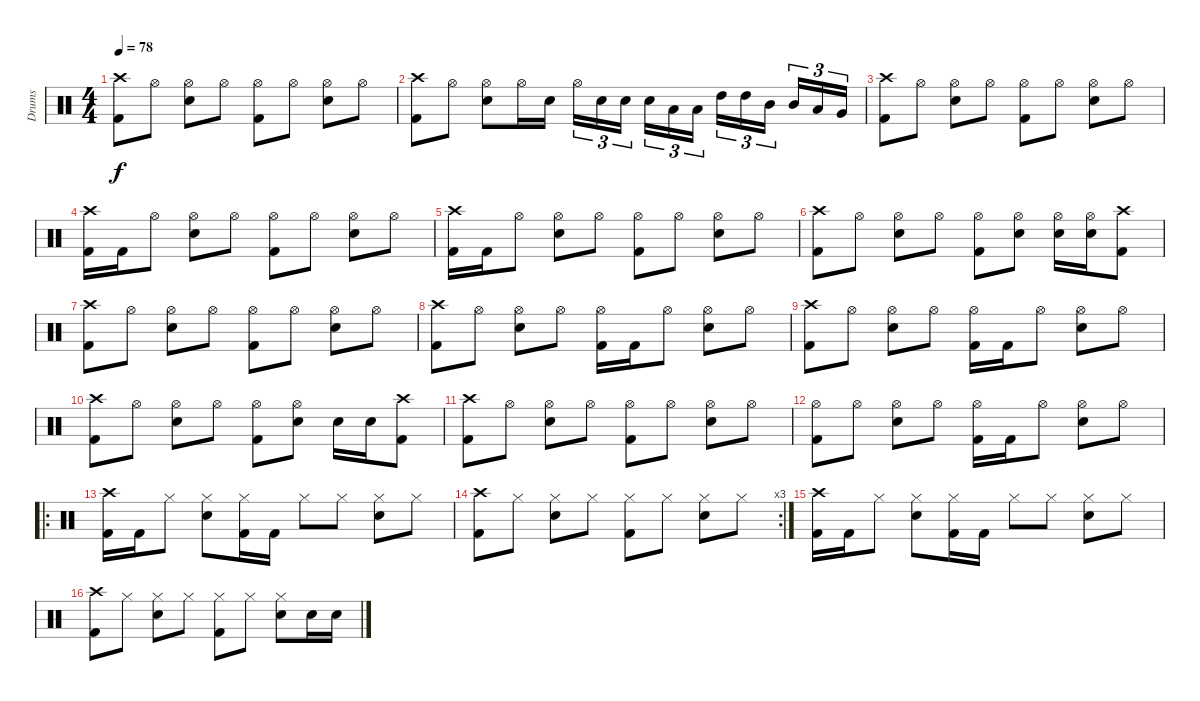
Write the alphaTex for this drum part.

\track ("Drums" "Drums") {instrument percussion}
\staff {score}
\articulation defaults
\ts (4 4)
\tempo 78
\clef neutral
\ks c
("Crash high (hit)" "Kick (hit) 2").8{dy f} "Hi-Hat (open)".8 ("Hi-Hat (open)" "Snare (hit) 2").8 "Hi-Hat (open)".8 ("Hi-Hat (open)" "Kick (hit) 2").8 "Hi-Hat (open)".8 ("Hi-Hat (open)" "Snare (hit) 2").8 "Hi-Hat (open)".8 |
("Crash high (hit)" "Kick (hit) 2").8 "Hi-Hat (open)".8 ("Hi-Hat (open)" "Snare (hit) 2").8 "Hi-Hat (open)".16 "Snare (hit) 2".16 "Hi-Hat (open)".16{tu (3 2)} "Snare (hit) 2".16{tu (3 2)} "Snare (hit) 2".16{tu (3 2)} "Snare (hit) 2".16{tu (3 2)} "Low Floor Tom (hit)".16{tu (3 2)} "Low Floor Tom (hit)".16{tu (3 2)} "High Tom (hit)".16{tu (3 2)} "High Tom (hit)".16{tu (3 2)} "Mid Tom (hit)".16{tu (3 2)} "Mid Tom (hit)".16{tu (3 2)} "Low Tom (hit)".16{tu (3 2)} "Very Low Tom (hit)".16{tu (3 2)} |
("Crash high (hit)" "Kick (hit) 2").8 "Hi-Hat (open)".8 ("Hi-Hat (open)" "Snare (hit) 2").8 "Hi-Hat (open)".8 ("Hi-Hat (open)" "Kick (hit) 2").8 "Hi-Hat (open)".8 ("Hi-Hat (open)" "Snare (hit) 2").8 "Hi-Hat (open)".8 |
("Crash high (hit)" "Kick (hit) 2").16 "Kick (hit) 2".16 "Hi-Hat (open)".8 ("Hi-Hat (open)" "Snare (hit) 2").8 "Hi-Hat (open)".8 ("Hi-Hat (open)" "Kick (hit) 2").8 "Hi-Hat (open)".8 ("Hi-Hat (open)" "Snare (hit) 2").8 "Hi-Hat (open)".8 |
("Crash high (hit)" "Kick (hit) 2").16 "Kick (hit) 2".16 "Hi-Hat (open)".8 ("Hi-Hat (open)" "Snare (hit) 2").8 "Hi-Hat (open)".8 ("Hi-Hat (open)" "Kick (hit) 2").8 "Hi-Hat (open)".8 ("Hi-Hat (open)" "Snare (hit) 2").8 "Hi-Hat (open)".8 |
("Crash high (hit)" "Kick (hit) 2").8 "Hi-Hat (open)".8 ("Hi-Hat (open)" "Snare (hit) 2").8 "Hi-Hat (open)".8 ("Hi-Hat (open)" "Kick (hit) 2").8 ("Hi-Hat (open)" "Snare (hit) 2").8 ("Hi-Hat (open)" "Snare (hit) 2").16 ("Hi-Hat (open)" "Snare (hit) 2").16 ("Crash high (hit)" "Kick (hit) 2").8 |
("Crash high (hit)" "Kick (hit) 2").8 "Hi-Hat (open)".8 ("Hi-Hat (open)" "Snare (hit) 2").8 "Hi-Hat (open)".8 ("Hi-Hat (open)" "Kick (hit) 2").8 "Hi-Hat (open)".8 ("Hi-Hat (open)" "Snare (hit) 2").8 "Hi-Hat (open)".8 |
("Crash high (hit)" "Kick (hit) 2").8 "Hi-Hat (open)".8 ("Hi-Hat (open)" "Snare (hit) 2").8 "Hi-Hat (open)".8 ("Hi-Hat (open)" "Kick (hit) 2").16 "Kick (hit) 2".16 "Hi-Hat (open)".8 ("Hi-Hat (open)" "Snare (hit) 2").8 "Hi-Hat (open)".8 |
("Crash high (hit)" "Kick (hit) 2").8 "Hi-Hat (open)".8 ("Hi-Hat (open)" "Snare (hit) 2").8 "Hi-Hat (open)".8 ("Hi-Hat (open)" "Kick (hit) 2").16 "Kick (hit) 2".16 "Hi-Hat (open)".8 ("Hi-Hat (open)" "Snare (hit) 2").8 "Hi-Hat (open)".8 |
("Crash high (hit)" "Kick (hit) 2").8 "Hi-Hat (open)".8 ("Hi-Hat (open)" "Snare (hit) 2").8 "Hi-Hat (open)".8 ("Hi-Hat (open)" "Kick (hit) 2").8 ("Hi-Hat (open)" "Snare (hit) 2").8 "Snare (hit) 2".16 "Snare (hit) 2".16 ("Crash high (hit)" "Kick (hit) 2").8 |
("Crash high (hit)" "Kick (hit) 2").8 "Hi-Hat (open)".8 ("Hi-Hat (open)" "Snare (hit) 2").8 "Hi-Hat (open)".8 ("Hi-Hat (open)" "Kick (hit) 2").8 "Hi-Hat (open)".8 ("Hi-Hat (open)" "Snare (hit) 2").8 "Hi-Hat (open)".8 |
("Hi-Hat (open)" "Kick (hit) 2").8 "Hi-Hat (open)".8 ("Hi-Hat (open)" "Snare (hit) 2").8 "Hi-Hat (open)".8 ("Hi-Hat (open)" "Kick (hit) 2").16 "Kick (hit) 2".16 "Hi-Hat (open)".8 ("Hi-Hat (open)" "Snare (hit) 2").8 "Hi-Hat (open)".8 |
\ro
("Crash high (hit)" "Kick (hit) 2").16 "Kick (hit) 2".16 "Hi-Hat (closed)".8 ("Hi-Hat (closed)" "Snare (hit) 2").8 ("Hi-Hat (closed)" "Kick (hit) 2").16 "Kick (hit) 2".16 "Hi-Hat (closed)".8 "Hi-Hat (closed)".8 ("Hi-Hat (closed)" "Snare (hit) 2").8 "Hi-Hat (closed)".8 |
\rc 3
("Crash high (hit)" "Kick (hit) 2").8 "Hi-Hat (closed)".8 ("Hi-Hat (closed)" "Snare (hit) 2").8 "Hi-Hat (closed)".8 ("Hi-Hat (closed)" "Kick (hit) 2").8 "Hi-Hat (closed)".8 ("Hi-Hat (closed)" "Snare (hit) 2").8 "Hi-Hat (closed)".8 |
("Crash high (hit)" "Kick (hit) 2").16 "Kick (hit) 2".16 "Hi-Hat (closed)".8 ("Hi-Hat (closed)" "Snare (hit) 2").8 ("Hi-Hat (closed)" "Kick (hit) 2").16 "Kick (hit) 2".16 "Hi-Hat (closed)".8 "Hi-Hat (closed)".8 ("Hi-Hat (closed)" "Snare (hit) 2").8 "Hi-Hat (closed)".8 |
("Crash high (hit)" "Kick (hit) 2").8 "Hi-Hat (closed)".8 ("Hi-Hat (closed)" "Snare (hit) 2").8 "Hi-Hat (closed)".8 ("Hi-Hat (closed)" "Kick (hit) 2").8 "Hi-Hat (closed)".8 ("Hi-Hat (closed)" "Snare (hit) 2").8 "Snare (hit) 2".16 "Snare (hit) 2".16
